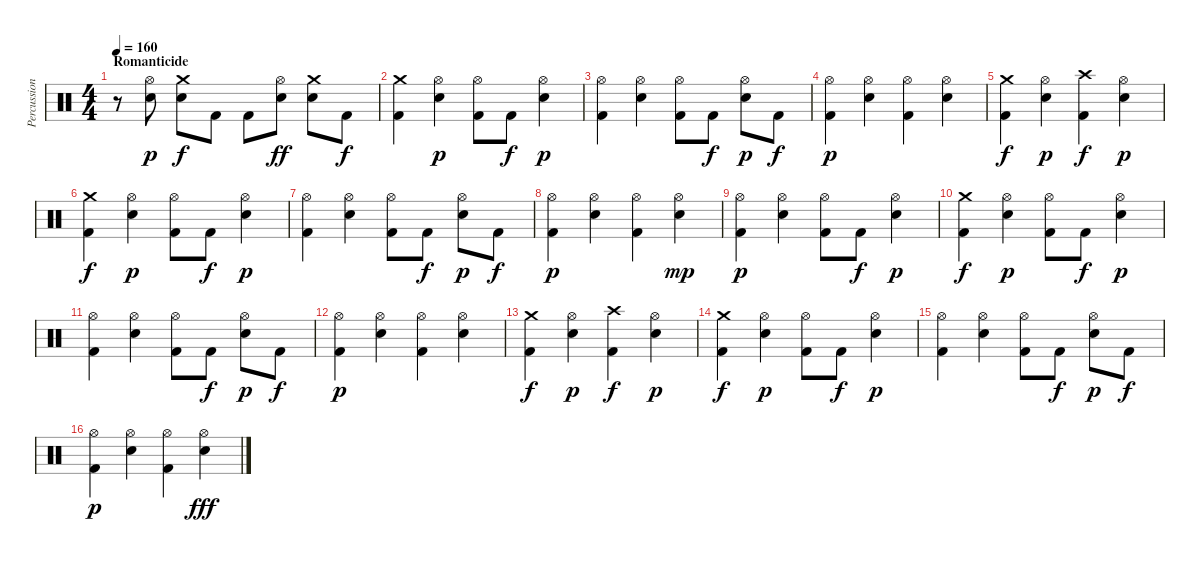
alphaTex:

\track ("Percussion" "Percussion") {instrument percussion}
\staff {score}
\articulation defaults
\ts (4 4)
\section ("" "Romanticide")
\tempo 160
\clef neutral
\ks c
r.8{dy f} ("Hi-Hat (open)" "Snare (hit) 2").8{dy p} ("Crash medium (hit)" "Snare (hit) 2").8{dy f} "Kick (hit) 2".8 "Kick (hit) 2".8 ("Hi-Hat (open)" "Snare (hit) 2").8{dy ff} ("Crash medium (hit)" "Snare (hit) 2").8 "Kick (hit) 2".8{dy f} |
("Crash medium (hit)" "Kick (hit) 2").4 ("Hi-Hat (open)" "Snare (hit) 2").4{dy p} ("Hi-Hat (open)" "Kick (hit) 2").8 "Kick (hit) 2".8{dy f} ("Hi-Hat (open)" "Snare (hit) 2").4{dy p} |
("Hi-Hat (open)" "Kick (hit) 2").4 ("Hi-Hat (open)" "Snare (hit) 2").4 ("Hi-Hat (open)" "Kick (hit) 2").8 "Kick (hit) 2".8{dy f} ("Hi-Hat (open)" "Snare (hit) 2").8{dy p} "Kick (hit) 2".8{dy f} |
("Hi-Hat (open)" "Kick (hit) 2").4{dy p} ("Hi-Hat (open)" "Snare (hit) 2").4 ("Hi-Hat (open)" "Kick (hit) 2").4 ("Hi-Hat (open)" "Snare (hit) 2").4 |
("Crash medium (hit)" "Kick (hit) 2").4{dy f} ("Hi-Hat (open)" "Snare (hit) 2").4{dy p} ("Crash high (hit)" "Kick (hit) 2").4{dy f} ("Hi-Hat (open)" "Snare (hit) 2").4{dy p} |
("Crash medium (hit)" "Kick (hit) 2").4{dy f} ("Hi-Hat (open)" "Snare (hit) 2").4{dy p} ("Hi-Hat (open)" "Kick (hit) 2").8 "Kick (hit) 2".8{dy f} ("Hi-Hat (open)" "Snare (hit) 2").4{dy p} |
("Hi-Hat (open)" "Kick (hit) 2").4 ("Hi-Hat (open)" "Snare (hit) 2").4 ("Hi-Hat (open)" "Kick (hit) 2").8 "Kick (hit) 2".8{dy f} ("Hi-Hat (open)" "Snare (hit) 2").8{dy p} "Kick (hit) 2".8{dy f} |
("Hi-Hat (open)" "Kick (hit) 2").4{dy p} ("Hi-Hat (open)" "Snare (hit) 2").4 ("Hi-Hat (open)" "Kick (hit) 2").4 ("Hi-Hat (open)" "Snare (hit) 2").4{dy mp} |
("Hi-Hat (open)" "Kick (hit) 2").4{dy p} ("Hi-Hat (open)" "Snare (hit) 2").4 ("Hi-Hat (open)" "Kick (hit) 2").8 "Kick (hit) 2".8{dy f} ("Hi-Hat (open)" "Snare (hit) 2").4{dy p} |
("Crash medium (hit)" "Kick (hit) 2").4{dy f} ("Hi-Hat (open)" "Snare (hit) 2").4{dy p} ("Hi-Hat (open)" "Kick (hit) 2").8 "Kick (hit) 2".8{dy f} ("Hi-Hat (open)" "Snare (hit) 2").4{dy p} |
("Hi-Hat (open)" "Kick (hit) 2").4 ("Hi-Hat (open)" "Snare (hit) 2").4 ("Hi-Hat (open)" "Kick (hit) 2").8 "Kick (hit) 2".8{dy f} ("Hi-Hat (open)" "Snare (hit) 2").8{dy p} "Kick (hit) 2".8{dy f} |
("Hi-Hat (open)" "Kick (hit) 2").4{dy p} ("Hi-Hat (open)" "Snare (hit) 2").4 ("Hi-Hat (open)" "Kick (hit) 2").4 ("Hi-Hat (open)" "Snare (hit) 2").4 |
("Crash medium (hit)" "Kick (hit) 2").4{dy f} ("Hi-Hat (open)" "Snare (hit) 2").4{dy p} ("Crash high (hit)" "Kick (hit) 2").4{dy f} ("Hi-Hat (open)" "Snare (hit) 2").4{dy p} |
("Crash medium (hit)" "Kick (hit) 2").4{dy f} ("Hi-Hat (open)" "Snare (hit) 2").4{dy p} ("Hi-Hat (open)" "Kick (hit) 2").8 "Kick (hit) 2".8{dy f} ("Hi-Hat (open)" "Snare (hit) 2").4{dy p} |
("Hi-Hat (open)" "Kick (hit) 2").4 ("Hi-Hat (open)" "Snare (hit) 2").4 ("Hi-Hat (open)" "Kick (hit) 2").8 "Kick (hit) 2".8{dy f} ("Hi-Hat (open)" "Snare (hit) 2").8{dy p} "Kick (hit) 2".8{dy f} |
("Hi-Hat (open)" "Kick (hit) 2").4{dy p} ("Hi-Hat (open)" "Snare (hit) 2").4 ("Hi-Hat (open)" "Kick (hit) 2").4 ("Hi-Hat (open)" "Snare (hit) 2").4{dy fff}
